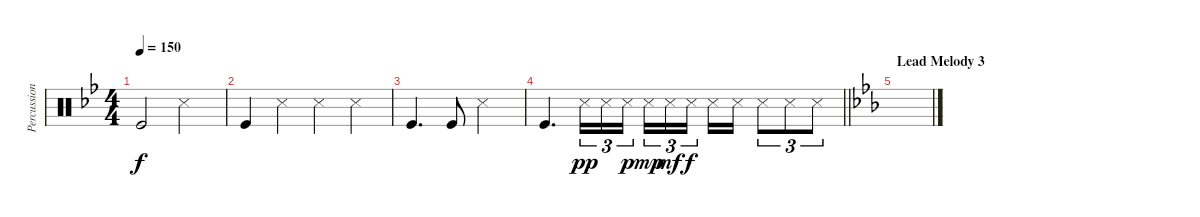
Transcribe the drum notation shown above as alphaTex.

\track ("Percussion" "Percussion") {instrument percussion}
\staff {score}
\articulation defaults
\ts (4 4)
\tempo 150
\clef neutral
\ks gminor "Kick (hit)".2{dy f} "Snare (side stick) 3".2
|
"Kick (hit)".4 "Snare (side stick) 3".4 "Snare (side stick) 3".4 "Snare (side stick) 3".4 |
"Kick (hit)".4{d} "Kick (hit)".8 "Snare (side stick) 3".2 |
\barLineRight lightlight "Kick (hit)".4{d} "Snare (side stick) 3".16{tu (3 2) dy pp} "Snare (side stick) 3".16{tu (3 2)} "Snare (side stick) 3".16{tu (3 2) dy p} "Snare (side stick) 3".16{tu (3 2) dy mp} "Snare (side stick) 3".16{tu (3 2) dy mf} "Snare (side stick) 3".16{tu (3 2) dy f beam splitsecondary} "Snare (side stick) 3".16 "Snare (side stick) 3".16 "Snare (side stick) 3".8{tu (3 2)} "Snare (side stick) 3".8{tu (3 2)} "Snare (side stick) 3".8{tu (3 2)}
|
\section ("" "Lead Melody 3")
\ks cminor
